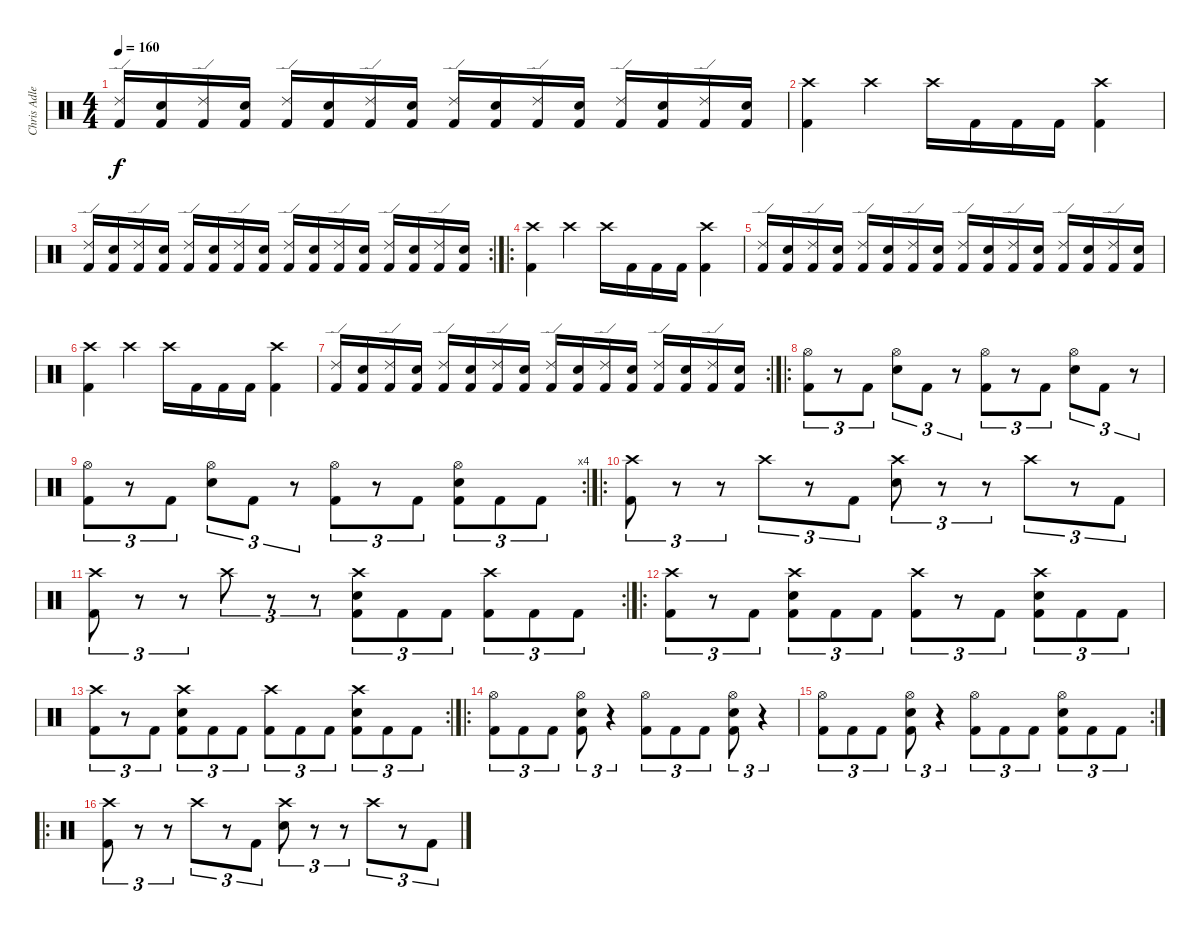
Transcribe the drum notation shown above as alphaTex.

\track ("Chris Adler" "Chris Adle") {instrument percussion}
\staff {score}
\articulation defaults
\ts (4 4)
\tempo 160
\clef neutral
\ks c
("Ride (edge) 2" "Kick (hit) 2").16{dy f} ("Electric Snare (hit)" "Kick (hit) 2").16 ("Ride (edge) 2" "Kick (hit) 2").16 ("Electric Snare (hit)" "Kick (hit) 2").16 ("Ride (edge) 2" "Kick (hit) 2").16 ("Electric Snare (hit)" "Kick (hit) 2").16 ("Ride (edge) 2" "Kick (hit) 2").16 ("Electric Snare (hit)" "Kick (hit) 2").16 ("Ride (edge) 2" "Kick (hit) 2").16 ("Electric Snare (hit)" "Kick (hit) 2").16 ("Ride (edge) 2" "Kick (hit) 2").16 ("Electric Snare (hit)" "Kick (hit) 2").16 ("Ride (edge) 2" "Kick (hit) 2").16 ("Electric Snare (hit)" "Kick (hit) 2").16 ("Ride (edge) 2" "Kick (hit) 2").16 ("Electric Snare (hit)" "Kick (hit) 2").16 |
("Crash high (hit)" "Kick (hit) 2").4 "Crash high (hit)".4 "Crash high (hit)".16 "Kick (hit) 2".16 "Kick (hit) 2".16 "Kick (hit) 2".16 ("Crash high (hit)" "Kick (hit) 2").4 |
\rc 2
("Ride (edge) 2" "Kick (hit) 2").16 ("Electric Snare (hit)" "Kick (hit) 2").16 ("Ride (edge) 2" "Kick (hit) 2").16 ("Electric Snare (hit)" "Kick (hit) 2").16 ("Ride (edge) 2" "Kick (hit) 2").16 ("Electric Snare (hit)" "Kick (hit) 2").16 ("Ride (edge) 2" "Kick (hit) 2").16 ("Electric Snare (hit)" "Kick (hit) 2").16 ("Ride (edge) 2" "Kick (hit) 2").16 ("Electric Snare (hit)" "Kick (hit) 2").16 ("Ride (edge) 2" "Kick (hit) 2").16 ("Electric Snare (hit)" "Kick (hit) 2").16 ("Ride (edge) 2" "Kick (hit) 2").16 ("Electric Snare (hit)" "Kick (hit) 2").16 ("Ride (edge) 2" "Kick (hit) 2").16 ("Electric Snare (hit)" "Kick (hit) 2").16 |
\ro
("Crash high (hit)" "Kick (hit) 2").4 "Crash high (hit)".4 "Crash high (hit)".16 "Kick (hit) 2".16 "Kick (hit) 2".16 "Kick (hit) 2".16 ("Crash high (hit)" "Kick (hit) 2").4 |
("Ride (edge) 2" "Kick (hit) 2").16 ("Electric Snare (hit)" "Kick (hit) 2").16 ("Ride (edge) 2" "Kick (hit) 2").16 ("Electric Snare (hit)" "Kick (hit) 2").16 ("Ride (edge) 2" "Kick (hit) 2").16 ("Electric Snare (hit)" "Kick (hit) 2").16 ("Ride (edge) 2" "Kick (hit) 2").16 ("Electric Snare (hit)" "Kick (hit) 2").16 ("Ride (edge) 2" "Kick (hit) 2").16 ("Electric Snare (hit)" "Kick (hit) 2").16 ("Ride (edge) 2" "Kick (hit) 2").16 ("Electric Snare (hit)" "Kick (hit) 2").16 ("Ride (edge) 2" "Kick (hit) 2").16 ("Electric Snare (hit)" "Kick (hit) 2").16 ("Ride (edge) 2" "Kick (hit) 2").16 ("Electric Snare (hit)" "Kick (hit) 2").16 |
("Crash high (hit)" "Kick (hit) 2").4 "Crash high (hit)".4 "Crash high (hit)".16 "Kick (hit) 2".16 "Kick (hit) 2".16 "Kick (hit) 2".16 ("Crash high (hit)" "Kick (hit) 2").4 |
\rc 2
("Ride (edge) 2" "Kick (hit) 2").16 ("Electric Snare (hit)" "Kick (hit) 2").16 ("Ride (edge) 2" "Kick (hit) 2").16 ("Electric Snare (hit)" "Kick (hit) 2").16 ("Ride (edge) 2" "Kick (hit) 2").16 ("Electric Snare (hit)" "Kick (hit) 2").16 ("Ride (edge) 2" "Kick (hit) 2").16 ("Electric Snare (hit)" "Kick (hit) 2").16 ("Ride (edge) 2" "Kick (hit) 2").16 ("Electric Snare (hit)" "Kick (hit) 2").16 ("Ride (edge) 2" "Kick (hit) 2").16 ("Electric Snare (hit)" "Kick (hit) 2").16 ("Ride (edge) 2" "Kick (hit) 2").16 ("Electric Snare (hit)" "Kick (hit) 2").16 ("Ride (edge) 2" "Kick (hit) 2").16 ("Electric Snare (hit)" "Kick (hit) 2").16 |
\ro
("Hi-Hat (open)" "Kick (hit) 2").8{tu (3 2)} r.8{tu (3 2)} "Kick (hit) 2".8{tu (3 2)} ("Hi-Hat (open)" "Electric Snare (hit)").8{tu (3 2)} "Kick (hit) 2".8{tu (3 2)} r.8{tu (3 2)} ("Hi-Hat (open)" "Kick (hit) 2").8{tu (3 2)} r.8{tu (3 2)} "Kick (hit) 2".8{tu (3 2)} ("Hi-Hat (open)" "Electric Snare (hit)").8{tu (3 2)} "Kick (hit) 2".8{tu (3 2)} r.8{tu (3 2)} |
\rc 4
("Hi-Hat (open)" "Kick (hit) 2").8{tu (3 2)} r.8{tu (3 2)} "Kick (hit) 2".8{tu (3 2)} ("Hi-Hat (open)" "Electric Snare (hit)").8{tu (3 2)} "Kick (hit) 2".8{tu (3 2)} r.8{tu (3 2)} ("Hi-Hat (open)" "Kick (hit) 2").8{tu (3 2)} r.8{tu (3 2)} "Kick (hit) 2".8{tu (3 2)} ("Hi-Hat (open)" "Electric Snare (hit)" "Kick (hit) 2").8{tu (3 2)} "Kick (hit) 2".8{tu (3 2)} "Kick (hit) 2".8{tu (3 2)} |
\ro
("Crash high (hit)" "Kick (hit) 2").8{tu (3 2)} r.8{tu (3 2)} r.8{tu (3 2)} "Crash high (hit)".8{tu (3 2)} r.8{tu (3 2)} "Kick (hit) 2".8{tu (3 2)} ("Crash high (hit)" "Electric Snare (hit)").8{tu (3 2)} r.8{tu (3 2)} r.8{tu (3 2)} "Crash high (hit)".8{tu (3 2)} r.8{tu (3 2)} "Kick (hit) 2".8{tu (3 2)} |
\rc 2
("Crash high (hit)" "Kick (hit) 2").8{tu (3 2)} r.8{tu (3 2)} r.8{tu (3 2)} "Crash high (hit)".8{tu (3 2)} r.8{tu (3 2)} r.8{tu (3 2)} ("Crash high (hit)" "Electric Snare (hit)" "Kick (hit) 2").8{tu (3 2)} "Kick (hit) 2".8{tu (3 2)} "Kick (hit) 2".8{tu (3 2)} ("Crash high (hit)" "Kick (hit) 2").8{tu (3 2)} "Kick (hit) 2".8{tu (3 2)} "Kick (hit) 2".8{tu (3 2)} |
\ro
("Crash high (hit)" "Kick (hit) 2").8{tu (3 2)} r.8{tu (3 2)} "Kick (hit) 2".8{tu (3 2)} ("Crash high (hit)" "Electric Snare (hit)" "Kick (hit) 2").8{tu (3 2)} "Kick (hit) 2".8{tu (3 2)} "Kick (hit) 2".8{tu (3 2)} ("Crash high (hit)" "Kick (hit) 2").8{tu (3 2)} r.8{tu (3 2)} "Kick (hit) 2".8{tu (3 2)} ("Crash high (hit)" "Electric Snare (hit)" "Kick (hit) 2").8{tu (3 2)} "Kick (hit) 2".8{tu (3 2)} "Kick (hit) 2".8{tu (3 2)} |
\rc 2
("Crash high (hit)" "Kick (hit) 2").8{tu (3 2)} r.8{tu (3 2)} "Kick (hit) 2".8{tu (3 2)} ("Crash high (hit)" "Electric Snare (hit)" "Kick (hit) 2").8{tu (3 2)} "Kick (hit) 2".8{tu (3 2)} "Kick (hit) 2".8{tu (3 2)} ("Crash high (hit)" "Kick (hit) 2").8{tu (3 2)} "Kick (hit) 2".8{tu (3 2)} "Kick (hit) 2".8{tu (3 2)} ("Crash high (hit)" "Electric Snare (hit)" "Kick (hit) 2").8{tu (3 2)} "Kick (hit) 2".8{tu (3 2)} "Kick (hit) 2".8{tu (3 2)} |
\ro
("Hi-Hat (open)" "Kick (hit) 2").8{tu (3 2)} "Kick (hit) 2".8{tu (3 2)} "Kick (hit) 2".8{tu (3 2)} ("Hi-Hat (open)" "Electric Snare (hit)" "Kick (hit) 2").8{tu (3 2)} r.4{tu (3 2)} ("Hi-Hat (open)" "Kick (hit) 2").8{tu (3 2)} "Kick (hit) 2".8{tu (3 2)} "Kick (hit) 2".8{tu (3 2)} ("Hi-Hat (open)" "Electric Snare (hit)" "Kick (hit) 2").8{tu (3 2)} r.4{tu (3 2)} |
\rc 2
("Hi-Hat (open)" "Kick (hit) 2").8{tu (3 2)} "Kick (hit) 2".8{tu (3 2)} "Kick (hit) 2".8{tu (3 2)} ("Hi-Hat (open)" "Electric Snare (hit)" "Kick (hit) 2").8{tu (3 2)} r.4{tu (3 2)} ("Hi-Hat (open)" "Kick (hit) 2").8{tu (3 2)} "Kick (hit) 2".8{tu (3 2)} "Kick (hit) 2".8{tu (3 2)} ("Hi-Hat (open)" "Electric Snare (hit)" "Kick (hit) 2").8{tu (3 2)} "Kick (hit) 2".8{tu (3 2)} "Kick (hit) 2".8{tu (3 2)} |
\ro
("Crash high (hit)" "Kick (hit) 2").8{tu (3 2)} r.8{tu (3 2)} r.8{tu (3 2)} "Crash high (hit)".8{tu (3 2)} r.8{tu (3 2)} "Kick (hit) 2".8{tu (3 2)} ("Crash high (hit)" "Electric Snare (hit)").8{tu (3 2)} r.8{tu (3 2)} r.8{tu (3 2)} "Crash high (hit)".8{tu (3 2)} r.8{tu (3 2)} "Kick (hit) 2".8{tu (3 2)}
